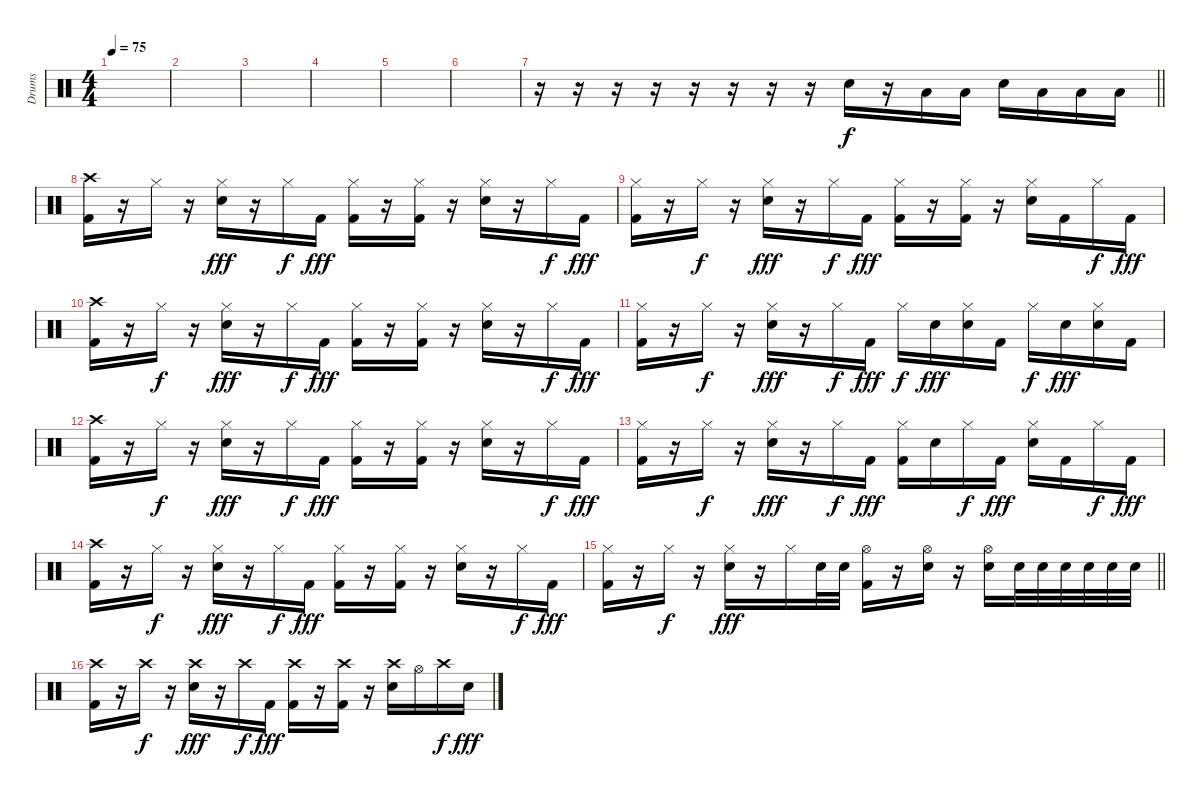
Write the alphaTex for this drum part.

\track ("Drums" "Drums") {instrument percussion}
\staff {score}
\articulation defaults
\ts (4 4)
\tempo 75
\clef neutral
\ks c
|
|
|
|
|
|
\barLineRight lightlight
r.16 r.16 r.16 r.16 r.16 r.16 r.16 r.16 "Electric Snare (hit)".16 r.16 "Low Tom (hit)".16 "Low Tom (hit)".16 "Electric Snare (hit)".16 "Low Tom (hit)".16 "Low Floor Tom (hit)".16 "Low Floor Tom (hit)".16 |
\section ("" "")
("Crash high (hit)" "Kick (hit) 2").16 r.16 "Hi-Hat (closed)".16{dy f} r.16 ("Hi-Hat (closed)" "Electric Snare (hit)").16{dy fff} r.16 "Hi-Hat (closed)".16{dy f} "Kick (hit) 2".16{dy fff} ("Hi-Hat (closed)" "Kick (hit) 2").16 r.16 ("Hi-Hat (closed)" "Kick (hit) 2").16 r.16 ("Hi-Hat (closed)" "Electric Snare (hit)").16 r.16 "Hi-Hat (closed)".16{dy f} "Kick (hit) 2".16{dy fff} |
("Hi-Hat (closed)" "Kick (hit) 2").16 r.16 "Hi-Hat (closed)".16{dy f} r.16 ("Hi-Hat (closed)" "Electric Snare (hit)").16{dy fff} r.16 "Hi-Hat (closed)".16{dy f} "Kick (hit) 2".16{dy fff} ("Hi-Hat (closed)" "Kick (hit) 2").16 r.16 ("Hi-Hat (closed)" "Kick (hit) 2").16 r.16 ("Hi-Hat (closed)" "Electric Snare (hit)").16 "Kick (hit) 2".16 "Hi-Hat (closed)".16{dy f} "Kick (hit) 2".16{dy fff} |
("Crash high (hit)" "Kick (hit) 2").16 r.16 "Hi-Hat (closed)".16{dy f} r.16 ("Hi-Hat (closed)" "Electric Snare (hit)").16{dy fff} r.16 "Hi-Hat (closed)".16{dy f} "Kick (hit) 2".16{dy fff} ("Hi-Hat (closed)" "Kick (hit) 2").16 r.16 ("Hi-Hat (closed)" "Kick (hit) 2").16 r.16 ("Hi-Hat (closed)" "Electric Snare (hit)").16 r.16 "Hi-Hat (closed)".16{dy f} "Kick (hit) 2".16{dy fff} |
("Hi-Hat (closed)" "Kick (hit) 2").16 r.16 "Hi-Hat (closed)".16{dy f} r.16 ("Hi-Hat (closed)" "Electric Snare (hit)").16{dy fff} r.16 "Hi-Hat (closed)".16{dy f} "Kick (hit) 2".16{dy fff} "Hi-Hat (closed)".16{dy f} "Electric Snare (hit)".16{dy fff} ("Hi-Hat (closed)" "Electric Snare (hit)").16 "Kick (hit) 2".16 "Hi-Hat (closed)".16{dy f} "Electric Snare (hit)".16{dy fff} ("Hi-Hat (closed)" "Electric Snare (hit)").16 "Kick (hit) 2".16 |
("Crash high (hit)" "Kick (hit) 2").16 r.16 "Hi-Hat (closed)".16{dy f} r.16 ("Hi-Hat (closed)" "Electric Snare (hit)").16{dy fff} r.16 "Hi-Hat (closed)".16{dy f} "Kick (hit) 2".16{dy fff} ("Hi-Hat (closed)" "Kick (hit) 2").16 r.16 ("Hi-Hat (closed)" "Kick (hit) 2").16 r.16 ("Hi-Hat (closed)" "Electric Snare (hit)").16 r.16 "Hi-Hat (closed)".16{dy f} "Kick (hit) 2".16{dy fff} |
("Hi-Hat (closed)" "Kick (hit) 2").16 r.16 "Hi-Hat (closed)".16{dy f} r.16 ("Hi-Hat (closed)" "Electric Snare (hit)").16{dy fff} r.16 "Hi-Hat (closed)".16{dy f} "Kick (hit) 2".16{dy fff} ("Hi-Hat (closed)" "Kick (hit) 2").16 "Electric Snare (hit)".16 "Hi-Hat (closed)".16{dy f} "Kick (hit) 2".16{dy fff} ("Hi-Hat (closed)" "Electric Snare (hit)").16 "Kick (hit) 2".16 "Hi-Hat (closed)".16{dy f} "Kick (hit) 2".16{dy fff} |
("Crash high (hit)" "Kick (hit) 2").16 r.16 "Hi-Hat (closed)".16{dy f} r.16 ("Hi-Hat (closed)" "Electric Snare (hit)").16{dy fff} r.16 "Hi-Hat (closed)".16{dy f} "Kick (hit) 2".16{dy fff} ("Hi-Hat (closed)" "Kick (hit) 2").16 r.16 ("Hi-Hat (closed)" "Kick (hit) 2").16 r.16 ("Hi-Hat (closed)" "Electric Snare (hit)").16 r.16 "Hi-Hat (closed)".16{dy f} "Kick (hit) 2".16{dy fff} |
\barLineRight lightlight
("Hi-Hat (closed)" "Kick (hit) 2").16 r.16 "Hi-Hat (closed)".16{dy f} r.16 ("Hi-Hat (closed)" "Electric Snare (hit)").16{dy fff} r.16 "Hi-Hat (closed)".16 "Electric Snare (hit)".32 "Electric Snare (hit)".32 ("Hi-Hat (open)" "Kick (hit) 2").16 r.16 ("Hi-Hat (open)" "Electric Snare (hit)").16 r.16 ("Hi-Hat (open)" "Electric Snare (hit)").16 "Electric Snare (hit)".32 "Electric Snare (hit)".32 "Electric Snare (hit)".32 "Electric Snare (hit)".32 "Electric Snare (hit)".32 "Electric Snare (hit)".32 |
\section ("" "")
("Crash high (hit)" "Kick (hit) 2").16 r.16 "Crash high (hit)".16{dy f} r.16 ("Crash high (hit)" "Electric Snare (hit)").16{dy fff} r.16 "Crash high (hit)".16{dy f} "Kick (hit) 2".16{dy fff} ("Crash high (hit)" "Kick (hit) 2").16 r.16 ("Crash high (hit)" "Kick (hit) 2").16 r.16 ("Crash high (hit)" "Electric Snare (hit)").16 "Hi-Hat (open)".16 "Crash high (hit)".16{dy f} "Electric Snare (hit)".16{dy fff}
